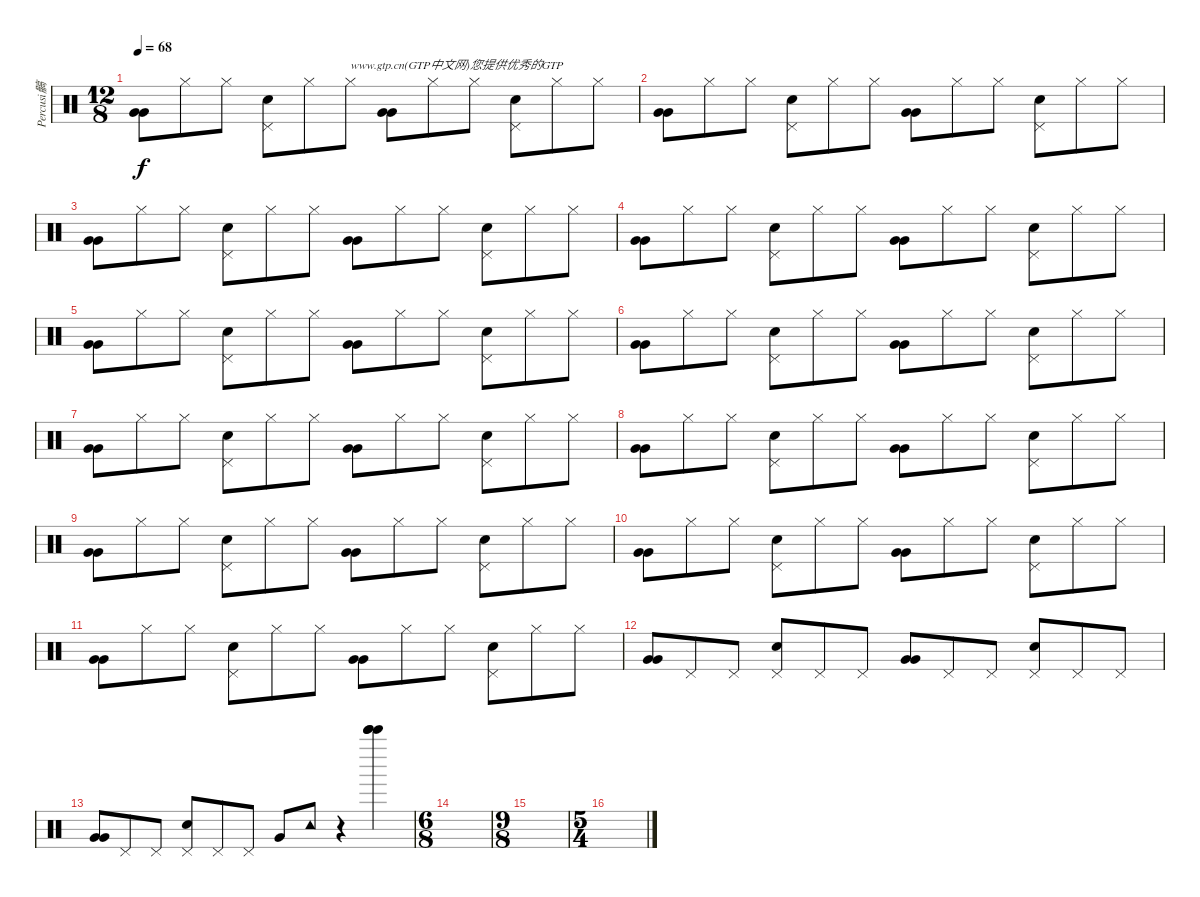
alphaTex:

\track ("Percusi髇" "Percusi髇") {instrument percussion}
\staff {score}
\articulation defaults
\ts (12 8)
\tempo 68
\clef neutral
\ks c
("Very Low Tom (hit)" "Very Low Tom (hit)").8{dy f} "Hi-Hat (closed)".8 "Hi-Hat (closed)".8 ("Pedal Hi-Hat (hit)" "Electric Snare (hit)").8 "Hi-Hat (closed)".8 "Hi-Hat (closed)".8{txt "www.gtp.cn(GTP中文网)您提供优秀的GTP"} ("Very Low Tom (hit)" "Very Low Tom (hit)").8 "Hi-Hat (closed)".8 "Hi-Hat (closed)".8 ("Pedal Hi-Hat (hit)" "Electric Snare (hit)").8 "Hi-Hat (closed)".8 "Hi-Hat (closed)".8 |
("Very Low Tom (hit)" "Very Low Tom (hit)").8 "Hi-Hat (closed)".8 "Hi-Hat (closed)".8 ("Pedal Hi-Hat (hit)" "Electric Snare (hit)").8 "Hi-Hat (closed)".8 "Hi-Hat (closed)".8 ("Very Low Tom (hit)" "Very Low Tom (hit)").8 "Hi-Hat (closed)".8 "Hi-Hat (closed)".8 ("Pedal Hi-Hat (hit)" "Electric Snare (hit)").8 "Hi-Hat (closed)".8 "Hi-Hat (closed)".8 |
("Very Low Tom (hit)" "Very Low Tom (hit)").8 "Hi-Hat (closed)".8 "Hi-Hat (closed)".8 ("Pedal Hi-Hat (hit)" "Electric Snare (hit)").8 "Hi-Hat (closed)".8 "Hi-Hat (closed)".8 ("Very Low Tom (hit)" "Very Low Tom (hit)").8 "Hi-Hat (closed)".8 "Hi-Hat (closed)".8 ("Pedal Hi-Hat (hit)" "Electric Snare (hit)").8 "Hi-Hat (closed)".8 "Hi-Hat (closed)".8 |
("Very Low Tom (hit)" "Very Low Tom (hit)").8 "Hi-Hat (closed)".8 "Hi-Hat (closed)".8 ("Pedal Hi-Hat (hit)" "Electric Snare (hit)").8 "Hi-Hat (closed)".8 "Hi-Hat (closed)".8 ("Very Low Tom (hit)" "Very Low Tom (hit)").8 "Hi-Hat (closed)".8 "Hi-Hat (closed)".8 ("Pedal Hi-Hat (hit)" "Electric Snare (hit)").8 "Hi-Hat (closed)".8 "Hi-Hat (closed)".8 |
("Very Low Tom (hit)" "Very Low Tom (hit)").8 "Hi-Hat (closed)".8 "Hi-Hat (closed)".8 ("Pedal Hi-Hat (hit)" "Electric Snare (hit)").8 "Hi-Hat (closed)".8 "Hi-Hat (closed)".8 ("Very Low Tom (hit)" "Very Low Tom (hit)").8 "Hi-Hat (closed)".8 "Hi-Hat (closed)".8 ("Pedal Hi-Hat (hit)" "Electric Snare (hit)").8 "Hi-Hat (closed)".8 "Hi-Hat (closed)".8 |
("Very Low Tom (hit)" "Very Low Tom (hit)").8 "Hi-Hat (closed)".8 "Hi-Hat (closed)".8 ("Pedal Hi-Hat (hit)" "Electric Snare (hit)").8 "Hi-Hat (closed)".8 "Hi-Hat (closed)".8 ("Very Low Tom (hit)" "Very Low Tom (hit)").8 "Hi-Hat (closed)".8 "Hi-Hat (closed)".8 ("Pedal Hi-Hat (hit)" "Electric Snare (hit)").8 "Hi-Hat (closed)".8 "Hi-Hat (closed)".8 |
("Very Low Tom (hit)" "Very Low Tom (hit)").8 "Hi-Hat (closed)".8 "Hi-Hat (closed)".8 ("Pedal Hi-Hat (hit)" "Electric Snare (hit)").8 "Hi-Hat (closed)".8 "Hi-Hat (closed)".8 ("Very Low Tom (hit)" "Very Low Tom (hit)").8 "Hi-Hat (closed)".8 "Hi-Hat (closed)".8 ("Pedal Hi-Hat (hit)" "Electric Snare (hit)").8 "Hi-Hat (closed)".8 "Hi-Hat (closed)".8 |
("Very Low Tom (hit)" "Very Low Tom (hit)").8 "Hi-Hat (closed)".8 "Hi-Hat (closed)".8 ("Pedal Hi-Hat (hit)" "Electric Snare (hit)").8 "Hi-Hat (closed)".8 "Hi-Hat (closed)".8 ("Very Low Tom (hit)" "Very Low Tom (hit)").8 "Hi-Hat (closed)".8 "Hi-Hat (closed)".8 ("Pedal Hi-Hat (hit)" "Electric Snare (hit)").8 "Hi-Hat (closed)".8 "Hi-Hat (closed)".8 |
("Very Low Tom (hit)" "Very Low Tom (hit)").8 "Hi-Hat (closed)".8 "Hi-Hat (closed)".8 ("Pedal Hi-Hat (hit)" "Electric Snare (hit)").8 "Hi-Hat (closed)".8 "Hi-Hat (closed)".8 ("Very Low Tom (hit)" "Very Low Tom (hit)").8 "Hi-Hat (closed)".8 "Hi-Hat (closed)".8 ("Pedal Hi-Hat (hit)" "Electric Snare (hit)").8 "Hi-Hat (closed)".8 "Hi-Hat (closed)".8 |
("Very Low Tom (hit)" "Very Low Tom (hit)").8 "Hi-Hat (closed)".8 "Hi-Hat (closed)".8 ("Pedal Hi-Hat (hit)" "Electric Snare (hit)").8 "Hi-Hat (closed)".8 "Hi-Hat (closed)".8 ("Very Low Tom (hit)" "Very Low Tom (hit)").8 "Hi-Hat (closed)".8 "Hi-Hat (closed)".8 ("Pedal Hi-Hat (hit)" "Electric Snare (hit)").8 "Hi-Hat (closed)".8 "Hi-Hat (closed)".8 |
("Very Low Tom (hit)" "Very Low Tom (hit)").8 "Hi-Hat (closed)".8 "Hi-Hat (closed)".8 ("Pedal Hi-Hat (hit)" "Electric Snare (hit)").8 "Hi-Hat (closed)".8 "Hi-Hat (closed)".8 ("Very Low Tom (hit)" "Very Low Tom (hit)").8 "Hi-Hat (closed)".8 "Hi-Hat (closed)".8 ("Pedal Hi-Hat (hit)" "Electric Snare (hit)").8 "Hi-Hat (closed)".8 "Hi-Hat (closed)".8 |
("Very Low Tom (hit)" "Very Low Tom (hit)").8 "Pedal Hi-Hat (hit)".8 "Pedal Hi-Hat (hit)".8 ("Pedal Hi-Hat (hit)" "Electric Snare (hit)").8 "Pedal Hi-Hat (hit)".8 "Pedal Hi-Hat (hit)".8 ("Very Low Tom (hit)" "Very Low Tom (hit)").8 "Pedal Hi-Hat (hit)".8 "Pedal Hi-Hat (hit)".8 ("Pedal Hi-Hat (hit)" "Electric Snare (hit)").8 "Pedal Hi-Hat (hit)".8 "Pedal Hi-Hat (hit)".8 |
("Very Low Tom (hit)" "Very Low Tom (hit)").8 "Pedal Hi-Hat (hit)".8 "Pedal Hi-Hat (hit)".8 ("Pedal Hi-Hat (hit)" "Electric Snare (hit)").8 "Pedal Hi-Hat (hit)".8 "Pedal Hi-Hat (hit)".8 "Very Low Tom (hit)".8 "Tambourine (hit)".8 r.4 ("Bell Tree (hit)" "Bell Tree (hit)" "Bell Tree (hit)").4 |
\ts (6 8)
|
\ts (9 8)
|
\ts (5 4)
